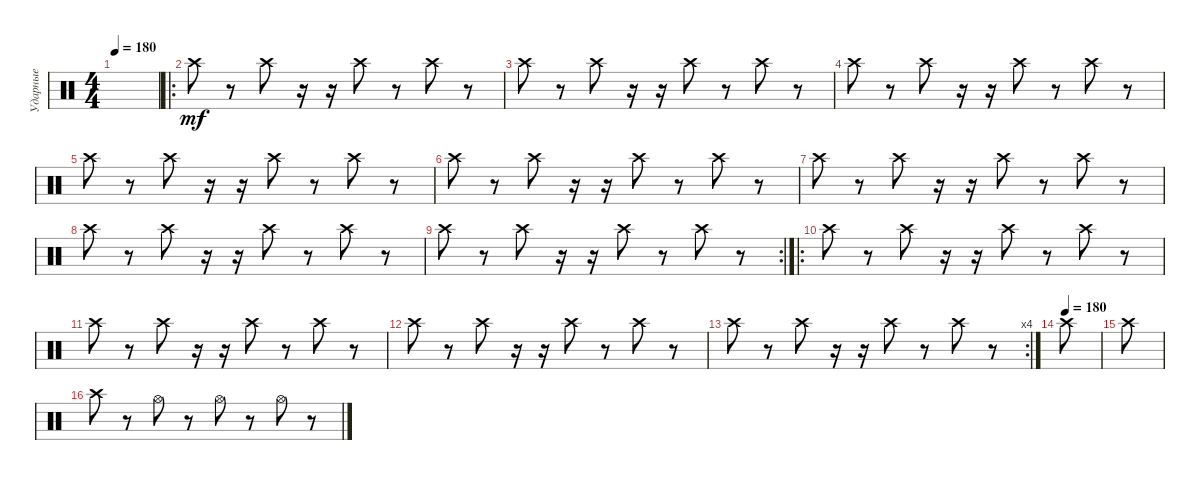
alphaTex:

\track ("Ударные" "Ударные") {instrument percussion}
\staff {score}
\articulation defaults
\ts (4 4)
\tempo 180
\clef neutral
\ks c
|
\ro "Crash high (hit)".8{dy mf}
r.8 "Crash high (hit)".8 r.16 r.16 "Crash high (hit)".8 r.8 "Crash high (hit)".8 r.8 |
"Crash high (hit)".8 r.8 "Crash high (hit)".8 r.16 r.16 "Crash high (hit)".8 r.8 "Crash high (hit)".8 r.8 |
"Crash high (hit)".8 r.8 "Crash high (hit)".8 r.16 r.16 "Crash high (hit)".8 r.8 "Crash high (hit)".8 r.8 |
"Crash high (hit)".8 r.8 "Crash high (hit)".8 r.16 r.16 "Crash high (hit)".8 r.8 "Crash high (hit)".8 r.8 |
"Crash high (hit)".8 r.8 "Crash high (hit)".8 r.16 r.16 "Crash high (hit)".8 r.8 "Crash high (hit)".8 r.8 |
"Crash high (hit)".8 r.8 "Crash high (hit)".8 r.16 r.16 "Crash high (hit)".8 r.8 "Crash high (hit)".8 r.8 |
"Crash high (hit)".8 r.8 "Crash high (hit)".8 r.16 r.16 "Crash high (hit)".8 r.8 "Crash high (hit)".8 r.8 |
\rc 2 "Crash high (hit)".8
r.8 "Crash high (hit)".8 r.16 r.16 "Crash high (hit)".8 r.8 "Crash high (hit)".8 r.8 |
\ro "Crash high (hit)".8
r.8 "Crash high (hit)".8 r.16 r.16 "Crash high (hit)".8 r.8 "Crash high (hit)".8 r.8 |
"Crash high (hit)".8 r.8 "Crash high (hit)".8 r.16 r.16 "Crash high (hit)".8 r.8 "Crash high (hit)".8 r.8 |
"Crash high (hit)".8 r.8 "Crash high (hit)".8 r.16 r.16 "Crash high (hit)".8 r.8 "Crash high (hit)".8 r.8 |
\rc 4 "Crash high (hit)".8
r.8 "Crash high (hit)".8 r.16 r.16 "Crash high (hit)".8 r.8 "Crash high (hit)".8 r.8 |
\tempo (180)
"Crash high (hit)".8 |
"Crash high (hit)".8 |
"Crash high (hit)".8 r.8 "Hi-Hat (open)".8 r.8 "Hi-Hat (open)".8 r.8 "Hi-Hat (open)".8 r.8
